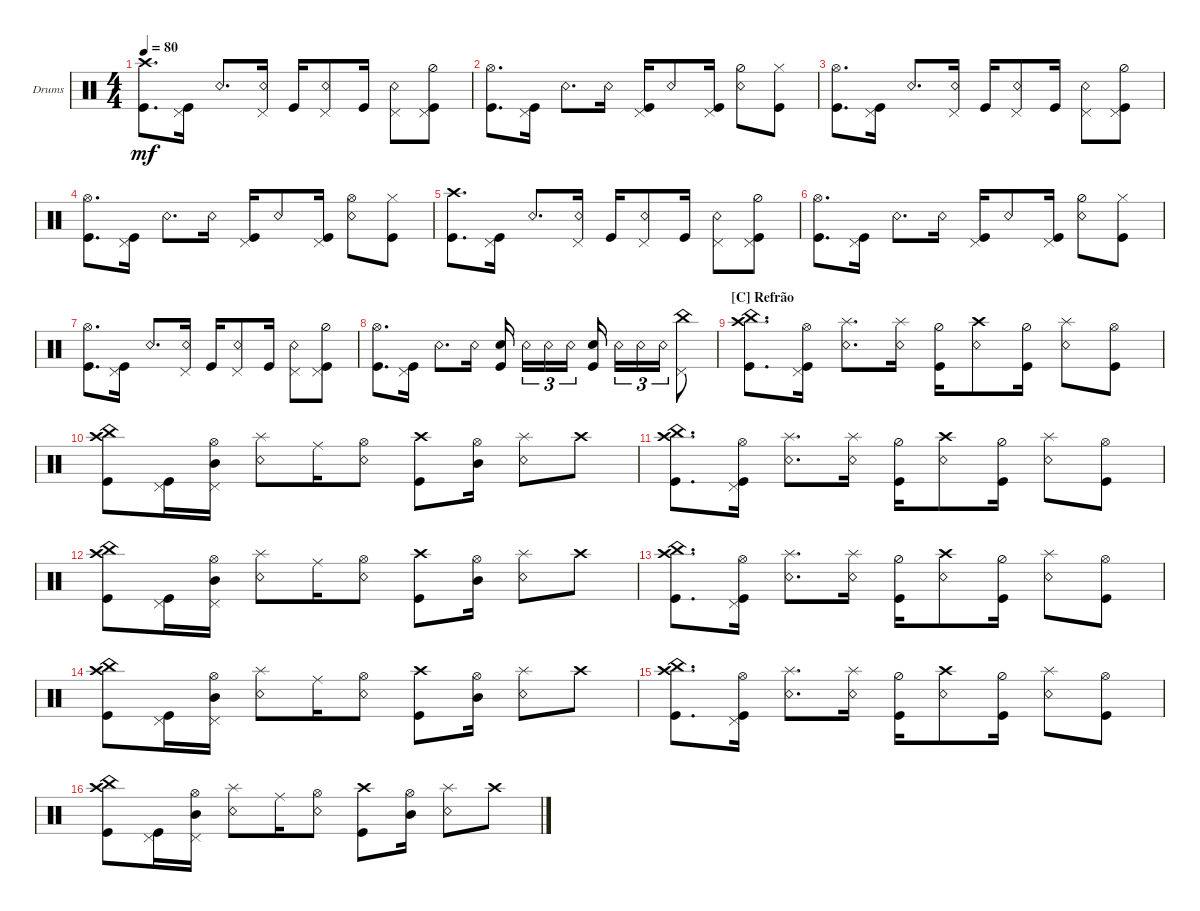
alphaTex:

\defaultSystemsLayout 4
\bracketExtendMode groupsimilarinstruments
\firstSystemTrackNameOrientation horizontal
\otherSystemsTrackNameOrientation horizontal
\track ("Bateria" "Drums") {multiBarRest instrument percussion}
\staff {score}
\articulation defaults
\ts (4 4)
\tempo 80
\clef neutral
\ks c
("Kick (hit)" "Crash high (hit)").8{d dy mf} ("Kick (hit)" "Pedal Hi-Hat (hit)").16 "Snare (rim shot)".8{d} ("Snare (rim shot)" "Pedal Hi-Hat (hit)").16 "Kick (hit)".16 ("Snare (rim shot)" "Pedal Hi-Hat (hit)").8 "Kick (hit)".16 ("Snare (rim shot)" "Pedal Hi-Hat (hit)").8 ("Kick (hit)" "Hi-Hat (half)" "Pedal Hi-Hat (hit)").8 |
("Kick (hit)" "Hi-Hat (open)").8{d} ("Kick (hit)" "Pedal Hi-Hat (hit)").16 "Snare (rim shot)".8{d} "Snare (rim shot)".16 ("Kick (hit)" "Pedal Hi-Hat (hit)").16 "Snare (rim shot)".8 ("Kick (hit)" "Pedal Hi-Hat (hit)").16 ("Snare (rim shot)" "Hi-Hat (half)").8 ("Kick (hit)" "Hi-Hat (closed)").8 |
("Kick (hit)" "Hi-Hat (open)").8{d} ("Kick (hit)" "Pedal Hi-Hat (hit)").16 "Snare (rim shot)".8{d} ("Snare (rim shot)" "Pedal Hi-Hat (hit)").16 "Kick (hit)".16 ("Snare (rim shot)" "Pedal Hi-Hat (hit)").8 "Kick (hit)".16 ("Snare (rim shot)" "Pedal Hi-Hat (hit)").8 ("Kick (hit)" "Hi-Hat (half)" "Pedal Hi-Hat (hit)").8 |
("Kick (hit)" "Hi-Hat (open)").8{d} ("Kick (hit)" "Pedal Hi-Hat (hit)").16 "Snare (rim shot)".8{d} "Snare (rim shot)".16 ("Kick (hit)" "Pedal Hi-Hat (hit)").16 "Snare (rim shot)".8 ("Kick (hit)" "Pedal Hi-Hat (hit)").16 ("Snare (rim shot)" "Hi-Hat (open)").8 ("Kick (hit)" "Hi-Hat (closed)").8 |
("Kick (hit)" "Crash high (hit)").8{d} ("Kick (hit)" "Pedal Hi-Hat (hit)").16 "Snare (rim shot)".8{d} ("Snare (rim shot)" "Pedal Hi-Hat (hit)").16 "Kick (hit)".16 ("Snare (rim shot)" "Pedal Hi-Hat (hit)").8 "Kick (hit)".16 ("Snare (rim shot)" "Pedal Hi-Hat (hit)").8 ("Kick (hit)" "Hi-Hat (half)" "Pedal Hi-Hat (hit)").8 |
("Kick (hit)" "Hi-Hat (open)").8{d} ("Kick (hit)" "Pedal Hi-Hat (hit)").16 "Snare (rim shot)".8{d} "Snare (rim shot)".16 ("Kick (hit)" "Pedal Hi-Hat (hit)").16 "Snare (rim shot)".8 ("Kick (hit)" "Pedal Hi-Hat (hit)").16 ("Snare (rim shot)" "Hi-Hat (half)").8 ("Kick (hit)" "Hi-Hat (closed)").8 |
("Kick (hit)" "Hi-Hat (open)").8{d} ("Kick (hit)" "Pedal Hi-Hat (hit)").16 "Snare (rim shot)".8{d} ("Snare (rim shot)" "Pedal Hi-Hat (hit)").16 "Kick (hit)".16 ("Snare (rim shot)" "Pedal Hi-Hat (hit)").8 "Kick (hit)".16 ("Snare (rim shot)" "Pedal Hi-Hat (hit)").8 ("Kick (hit)" "Hi-Hat (half)" "Pedal Hi-Hat (hit)").8 |
("Kick (hit)" "Hi-Hat (open)").8{d} ("Kick (hit)" "Pedal Hi-Hat (hit)").16 "Snare (rim shot)".8{d} "Snare (rim shot)".16 ("Kick (hit)" "Snare (hit) 2").16 "Snare (rim shot)".16{tu (3 2)} "Snare (rim shot)".16{tu (3 2)} "Snare (rim shot)".16{tu (3 2)} ("Kick (hit)" "Snare (hit) 2").16 "Snare (rim shot)".16{tu (3 2)} "Snare (rim shot)".16{tu (3 2)} "Snare (rim shot)".16{tu (3 2)} ("Pedal Hi-Hat (hit)" "China (hit)").8 |
\section ("C" "Refrão")
("Kick (hit)" "China (hit)" "Crash high (hit)").8{d} ("Kick (hit)" "Pedal Hi-Hat (hit)" "Hi-Hat (open)").16 ("Snare (rim shot)" "Splash (hit)").8{d} ("Snare (rim shot)" "Splash (hit)").16 ("Kick (hit)" "Hi-Hat (half)").16 ("Snare (rim shot)" "Crash high (hit)").8 ("Kick (hit)" "Hi-Hat (half)").16 ("Snare (rim shot)" "Splash (hit)").8 ("Kick (hit)" "Hi-Hat (open)").8 |
("Kick (hit)" "China (hit)" "Crash high (hit)").8 ("Kick (hit)" "Pedal Hi-Hat (hit)").16 ("Pedal Hi-Hat (hit)" "Mid Tom (hit)" "Hi-Hat (open)").16 ("Snare (rim shot)" "Splash (hit)").8 "Ride (middle)".16 ("Snare (rim shot)" "Hi-Hat (open)").8 ("Kick (hit)" "Crash high (hit)").8 ("Hi-Hat (open)" "Mid Tom (hit)").16 ("Snare (rim shot)" "Splash (hit)").8 "Crash high (hit)".8 |
("Kick (hit)" "China (hit)" "Crash high (hit)").8{d} ("Kick (hit)" "Pedal Hi-Hat (hit)" "Hi-Hat (open)").16 ("Snare (rim shot)" "Splash (hit)").8{d} ("Snare (rim shot)" "Splash (hit)").16 ("Kick (hit)" "Hi-Hat (half)").16 ("Snare (rim shot)" "Crash high (hit)").8 ("Kick (hit)" "Hi-Hat (half)").16 ("Snare (rim shot)" "Splash (hit)").8 ("Kick (hit)" "Hi-Hat (open)").8 |
("Kick (hit)" "China (hit)" "Crash high (hit)").8 ("Kick (hit)" "Pedal Hi-Hat (hit)").16 ("Pedal Hi-Hat (hit)" "Mid Tom (hit)" "Hi-Hat (open)").16 ("Snare (rim shot)" "Splash (hit)").8 "Ride (middle)".16 ("Snare (rim shot)" "Hi-Hat (open)").8 ("Kick (hit)" "Crash high (hit)").8 ("Hi-Hat (open)" "Mid Tom (hit)").16 ("Snare (rim shot)" "Splash (hit)").8 "Crash high (hit)".8 |
("Kick (hit)" "China (hit)" "Crash high (hit)").8{d} ("Kick (hit)" "Pedal Hi-Hat (hit)" "Hi-Hat (open)").16 ("Snare (rim shot)" "Splash (hit)").8{d} ("Snare (rim shot)" "Splash (hit)").16 ("Kick (hit)" "Hi-Hat (half)").16 ("Snare (rim shot)" "Crash high (hit)").8 ("Kick (hit)" "Hi-Hat (half)").16 ("Snare (rim shot)" "Splash (hit)").8 ("Kick (hit)" "Hi-Hat (open)").8 |
("Kick (hit)" "China (hit)" "Crash high (hit)").8 ("Kick (hit)" "Pedal Hi-Hat (hit)").16 ("Pedal Hi-Hat (hit)" "Mid Tom (hit)" "Hi-Hat (open)").16 ("Snare (rim shot)" "Splash (hit)").8 "Ride (middle)".16 ("Snare (rim shot)" "Hi-Hat (open)").8 ("Kick (hit)" "Crash high (hit)").8 ("Hi-Hat (open)" "Mid Tom (hit)").16 ("Snare (rim shot)" "Splash (hit)").8 "Crash high (hit)".8 |
("Kick (hit)" "China (hit)" "Crash high (hit)").8{d} ("Kick (hit)" "Pedal Hi-Hat (hit)" "Hi-Hat (open)").16 ("Snare (rim shot)" "Splash (hit)").8{d} ("Snare (rim shot)" "Splash (hit)").16 ("Kick (hit)" "Hi-Hat (half)").16 ("Snare (rim shot)" "Crash high (hit)").8 ("Kick (hit)" "Hi-Hat (half)").16 ("Snare (rim shot)" "Splash (hit)").8 ("Kick (hit)" "Hi-Hat (open)").8 |
("Kick (hit)" "China (hit)" "Crash high (hit)").8 ("Kick (hit)" "Pedal Hi-Hat (hit)").16 ("Pedal Hi-Hat (hit)" "Mid Tom (hit)" "Hi-Hat (open)").16 ("Snare (rim shot)" "Splash (hit)").8 "Ride (middle)".16 ("Snare (rim shot)" "Hi-Hat (open)").8 ("Kick (hit)" "Crash high (hit)").8 ("Hi-Hat (open)" "Mid Tom (hit)").16 ("Snare (rim shot)" "Splash (hit)").8 "Crash high (hit)".8
